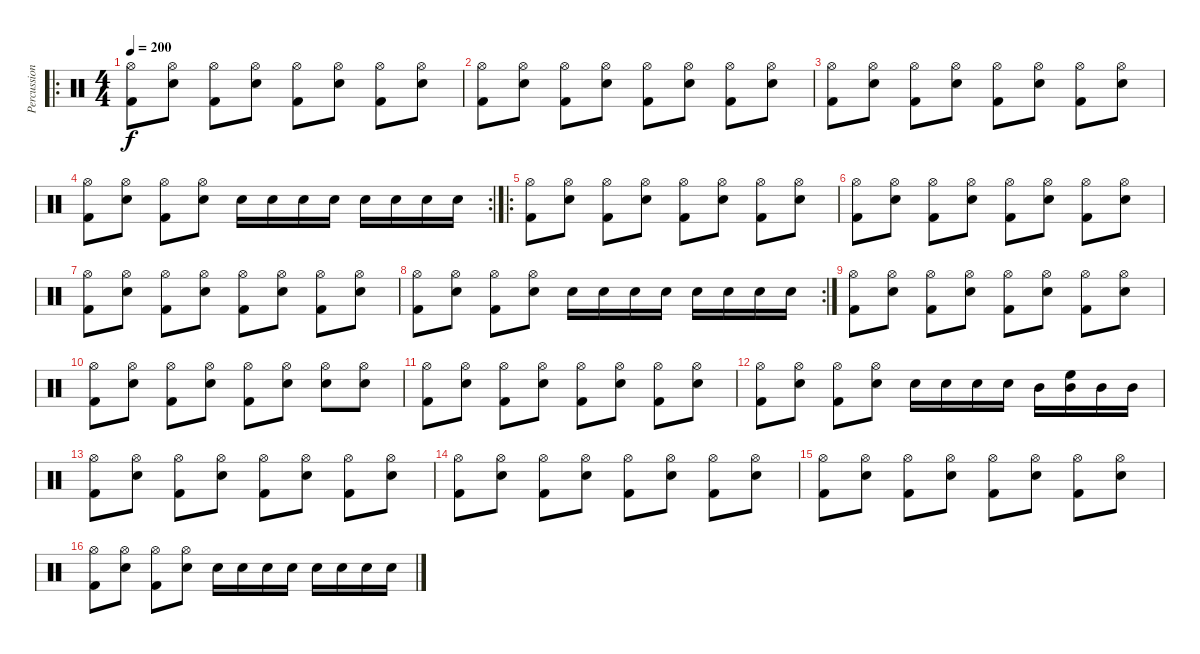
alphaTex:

\track ("Percussions" "Percussion") {instrument percussion}
\staff {score}
\articulation defaults
\ro
\ts (4 4)
\tempo 200
\clef neutral
\ks c
("Hi-Hat (open)" "Kick (hit) 2").8{dy f} ("Snare (hit) 2" "Hi-Hat (open)").8 ("Hi-Hat (open)" "Kick (hit) 2").8 ("Snare (hit) 2" "Hi-Hat (open)").8 ("Hi-Hat (open)" "Kick (hit) 2").8 ("Snare (hit) 2" "Hi-Hat (open)").8 ("Hi-Hat (open)" "Kick (hit) 2").8 ("Snare (hit) 2" "Hi-Hat (open)").8 |
("Hi-Hat (open)" "Kick (hit) 2").8 ("Snare (hit) 2" "Hi-Hat (open)").8 ("Hi-Hat (open)" "Kick (hit) 2").8 ("Snare (hit) 2" "Hi-Hat (open)").8 ("Hi-Hat (open)" "Kick (hit) 2").8 ("Snare (hit) 2" "Hi-Hat (open)").8 ("Hi-Hat (open)" "Kick (hit) 2").8 ("Snare (hit) 2" "Hi-Hat (open)").8 |
("Hi-Hat (open)" "Kick (hit) 2").8 ("Snare (hit) 2" "Hi-Hat (open)").8 ("Hi-Hat (open)" "Kick (hit) 2").8 ("Snare (hit) 2" "Hi-Hat (open)").8 ("Hi-Hat (open)" "Kick (hit) 2").8 ("Snare (hit) 2" "Hi-Hat (open)").8 ("Hi-Hat (open)" "Kick (hit) 2").8 ("Snare (hit) 2" "Hi-Hat (open)").8 |
\rc 2
("Hi-Hat (open)" "Kick (hit) 2").8 ("Snare (hit) 2" "Hi-Hat (open)").8 ("Hi-Hat (open)" "Kick (hit) 2").8 ("Snare (hit) 2" "Hi-Hat (open)").8 "Snare (hit) 2".16 "Snare (hit) 2".16 "Snare (hit) 2".16 "Snare (hit) 2".16 "Snare (hit) 2".16 "Snare (hit) 2".16 "Snare (hit) 2".16 "Snare (hit) 2".16 |
\ro
("Hi-Hat (open)" "Kick (hit) 2").8 ("Snare (hit) 2" "Hi-Hat (open)").8 ("Hi-Hat (open)" "Kick (hit) 2").8 ("Snare (hit) 2" "Hi-Hat (open)").8 ("Hi-Hat (open)" "Kick (hit) 2").8 ("Snare (hit) 2" "Hi-Hat (open)").8 ("Hi-Hat (open)" "Kick (hit) 2").8 ("Snare (hit) 2" "Hi-Hat (open)").8 |
("Hi-Hat (open)" "Kick (hit) 2").8 ("Snare (hit) 2" "Hi-Hat (open)").8 ("Hi-Hat (open)" "Kick (hit) 2").8 ("Snare (hit) 2" "Hi-Hat (open)").8 ("Hi-Hat (open)" "Kick (hit) 2").8 ("Snare (hit) 2" "Hi-Hat (open)").8 ("Hi-Hat (open)" "Kick (hit) 2").8 ("Snare (hit) 2" "Hi-Hat (open)").8 |
("Hi-Hat (open)" "Kick (hit) 2").8 ("Snare (hit) 2" "Hi-Hat (open)").8 ("Hi-Hat (open)" "Kick (hit) 2").8 ("Snare (hit) 2" "Hi-Hat (open)").8 ("Hi-Hat (open)" "Kick (hit) 2").8 ("Snare (hit) 2" "Hi-Hat (open)").8 ("Hi-Hat (open)" "Kick (hit) 2").8 ("Snare (hit) 2" "Hi-Hat (open)").8 |
\rc 2
("Hi-Hat (open)" "Kick (hit) 2").8 ("Snare (hit) 2" "Hi-Hat (open)").8 ("Hi-Hat (open)" "Kick (hit) 2").8 ("Snare (hit) 2" "Hi-Hat (open)").8 "Snare (hit) 2".16 "Snare (hit) 2".16 "Snare (hit) 2".16 "Snare (hit) 2".16 "Snare (hit) 2".16 "Snare (hit) 2".16 "Snare (hit) 2".16 "Snare (hit) 2".16 |
("Hi-Hat (open)" "Kick (hit) 2").8 ("Snare (hit) 2" "Hi-Hat (open)").8 ("Hi-Hat (open)" "Kick (hit) 2").8 ("Snare (hit) 2" "Hi-Hat (open)").8 ("Hi-Hat (open)" "Kick (hit) 2").8 ("Snare (hit) 2" "Hi-Hat (open)").8 ("Hi-Hat (open)" "Kick (hit) 2").8 ("Snare (hit) 2" "Hi-Hat (open)").8 |
("Hi-Hat (open)" "Kick (hit) 2").8 ("Snare (hit) 2" "Hi-Hat (open)").8 ("Hi-Hat (open)" "Kick (hit) 2").8 ("Snare (hit) 2" "Hi-Hat (open)").8 ("Hi-Hat (open)" "Kick (hit) 2").8 ("Snare (hit) 2" "Hi-Hat (open)").8 ("Hi-Hat (open)" "Snare (hit) 2").8 ("Snare (hit) 2" "Hi-Hat (open)").8 |
("Hi-Hat (open)" "Kick (hit) 2").8 ("Snare (hit) 2" "Hi-Hat (open)").8 ("Hi-Hat (open)" "Kick (hit) 2").8 ("Snare (hit) 2" "Hi-Hat (open)").8 ("Hi-Hat (open)" "Kick (hit) 2").8 ("Snare (hit) 2" "Hi-Hat (open)").8 ("Hi-Hat (open)" "Kick (hit) 2").8 ("Snare (hit) 2" "Hi-Hat (open)").8 |
("Hi-Hat (open)" "Kick (hit) 2").8 ("Snare (hit) 2" "Hi-Hat (open)").8 ("Hi-Hat (open)" "Kick (hit) 2").8 ("Snare (hit) 2" "Hi-Hat (open)").8 "Snare (hit) 2".16 "Snare (hit) 2".16 "Snare (hit) 2".16 "Snare (hit) 2".16 "Mid Tom (hit)".16 ("Mid Tom (hit)" "High Floor Tom (hit)").16 "Mid Tom (hit)".16 "Mid Tom (hit)".16 |
("Hi-Hat (open)" "Kick (hit) 2").8 ("Snare (hit) 2" "Hi-Hat (open)").8 ("Hi-Hat (open)" "Kick (hit) 2").8 ("Snare (hit) 2" "Hi-Hat (open)").8 ("Hi-Hat (open)" "Kick (hit) 2").8 ("Snare (hit) 2" "Hi-Hat (open)").8 ("Hi-Hat (open)" "Kick (hit) 2").8 ("Snare (hit) 2" "Hi-Hat (open)").8 |
("Hi-Hat (open)" "Kick (hit) 2").8 ("Snare (hit) 2" "Hi-Hat (open)").8 ("Hi-Hat (open)" "Kick (hit) 2").8 ("Snare (hit) 2" "Hi-Hat (open)").8 ("Hi-Hat (open)" "Kick (hit) 2").8 ("Snare (hit) 2" "Hi-Hat (open)").8 ("Hi-Hat (open)" "Kick (hit) 2").8 ("Snare (hit) 2" "Hi-Hat (open)").8 |
("Hi-Hat (open)" "Kick (hit) 2").8 ("Snare (hit) 2" "Hi-Hat (open)").8 ("Hi-Hat (open)" "Kick (hit) 2").8 ("Snare (hit) 2" "Hi-Hat (open)").8 ("Hi-Hat (open)" "Kick (hit) 2").8 ("Snare (hit) 2" "Hi-Hat (open)").8 ("Hi-Hat (open)" "Kick (hit) 2").8 ("Snare (hit) 2" "Hi-Hat (open)").8 |
("Hi-Hat (open)" "Kick (hit) 2").8 ("Snare (hit) 2" "Hi-Hat (open)").8 ("Hi-Hat (open)" "Kick (hit) 2").8 ("Snare (hit) 2" "Hi-Hat (open)").8 "Snare (hit) 2".16 "Snare (hit) 2".16 "Snare (hit) 2".16 "Snare (hit) 2".16 "Snare (hit) 2".16 "Snare (hit) 2".16 "Snare (hit) 2".16 "Snare (hit) 2".16
